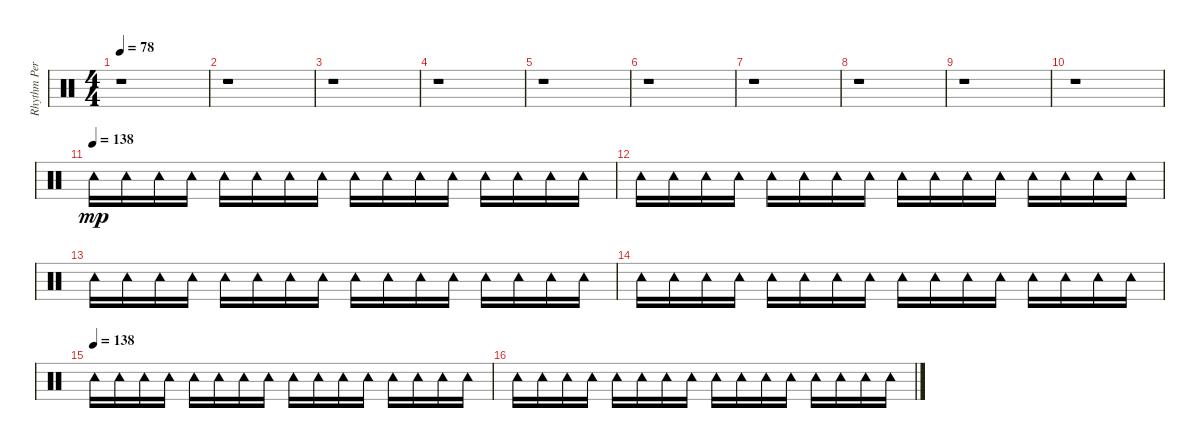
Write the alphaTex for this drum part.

\track ("Rhythm Percussion" "Rhythm Per") {instrument percussion}
\staff {score}
\articulation defaults
\ts (4 4)
\tempo 78
\clef neutral
\ks c
r.1{dy mp} |
r.1 |
r.1 |
r.1 |
r.1 |
r.1 |
r.1 |
r.1 |
r.1 |
r.1 |
\tempo (138)
"Tambourine (hit)".16 "Tambourine (hit)".16 "Tambourine (hit)".16 "Tambourine (hit)".16 "Tambourine (hit)".16 "Tambourine (hit)".16 "Tambourine (hit)".16 "Tambourine (hit)".16 "Tambourine (hit)".16 "Tambourine (hit)".16 "Tambourine (hit)".16 "Tambourine (hit)".16 "Tambourine (hit)".16 "Tambourine (hit)".16 "Tambourine (hit)".16 "Tambourine (hit)".16 |
"Tambourine (hit)".16 "Tambourine (hit)".16 "Tambourine (hit)".16 "Tambourine (hit)".16 "Tambourine (hit)".16 "Tambourine (hit)".16 "Tambourine (hit)".16 "Tambourine (hit)".16 "Tambourine (hit)".16 "Tambourine (hit)".16 "Tambourine (hit)".16 "Tambourine (hit)".16 "Tambourine (hit)".16 "Tambourine (hit)".16 "Tambourine (hit)".16 "Tambourine (hit)".16 |
"Tambourine (hit)".16 "Tambourine (hit)".16 "Tambourine (hit)".16 "Tambourine (hit)".16 "Tambourine (hit)".16 "Tambourine (hit)".16 "Tambourine (hit)".16 "Tambourine (hit)".16 "Tambourine (hit)".16 "Tambourine (hit)".16 "Tambourine (hit)".16 "Tambourine (hit)".16 "Tambourine (hit)".16 "Tambourine (hit)".16 "Tambourine (hit)".16 "Tambourine (hit)".16 |
"Tambourine (hit)".16 "Tambourine (hit)".16 "Tambourine (hit)".16 "Tambourine (hit)".16 "Tambourine (hit)".16 "Tambourine (hit)".16 "Tambourine (hit)".16 "Tambourine (hit)".16 "Tambourine (hit)".16 "Tambourine (hit)".16 "Tambourine (hit)".16 "Tambourine (hit)".16 "Tambourine (hit)".16 "Tambourine (hit)".16 "Tambourine (hit)".16 "Tambourine (hit)".16 |
\tempo (138)
"Tambourine (hit)".16 "Tambourine (hit)".16 "Tambourine (hit)".16 "Tambourine (hit)".16 "Tambourine (hit)".16 "Tambourine (hit)".16 "Tambourine (hit)".16 "Tambourine (hit)".16 "Tambourine (hit)".16 "Tambourine (hit)".16 "Tambourine (hit)".16 "Tambourine (hit)".16 "Tambourine (hit)".16 "Tambourine (hit)".16 "Tambourine (hit)".16 "Tambourine (hit)".16 |
"Tambourine (hit)".16 "Tambourine (hit)".16 "Tambourine (hit)".16 "Tambourine (hit)".16 "Tambourine (hit)".16 "Tambourine (hit)".16 "Tambourine (hit)".16 "Tambourine (hit)".16 "Tambourine (hit)".16 "Tambourine (hit)".16 "Tambourine (hit)".16 "Tambourine (hit)".16 "Tambourine (hit)".16 "Tambourine (hit)".16 "Tambourine (hit)".16 "Tambourine (hit)".16
